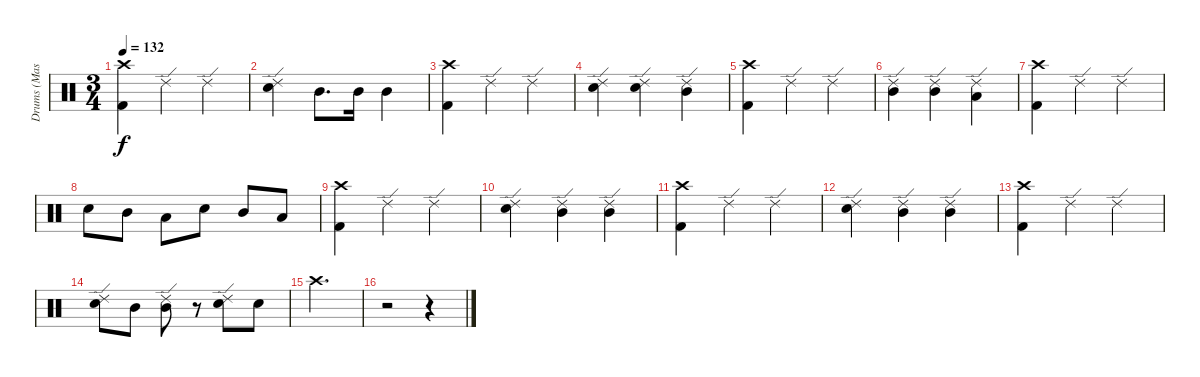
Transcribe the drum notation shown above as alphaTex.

\track ("Drums (Mason)" "Drums (Mas") {instrument percussion}
\staff {score}
\articulation defaults
\ts (3 4)
\section ("" "")
\tempo 132
\clef neutral
\ks c
("Crash high (hit)" "Kick (hit) 2").4{dy f} "Ride (edge) 2".4 "Ride (edge) 2".4 |
("Ride (edge) 2" "Snare (hit) 2").4 "Mid Tom (hit)".8{d} "Mid Tom (hit)".16 "Mid Tom (hit)".4 |
("Crash high (hit)" "Kick (hit) 2").4 "Ride (edge) 2".4 "Ride (edge) 2".4 |
("Ride (edge) 2" "Snare (hit) 2").4 ("Ride (edge) 2" "Snare (hit) 2").4 ("Ride (edge) 2" "Mid Tom (hit)").4 |
("Crash high (hit)" "Kick (hit) 2").4 "Ride (edge) 2".4 "Ride (edge) 2".4 |
("Ride (edge) 2" "Mid Tom (hit)").4 ("Ride (edge) 2" "Mid Tom (hit)").4 ("Ride (edge) 2" "Low Tom (hit)").4 |
("Crash high (hit)" "Kick (hit) 2").4 "Ride (edge) 2".4 "Ride (edge) 2".4 |
"Snare (hit) 2".8 "Mid Tom (hit)".8 "Low Tom (hit)".8 "Snare (hit) 2".8 "Mid Tom (hit)".8 "Low Tom (hit)".8 |
\section ("" "")
("Crash high (hit)" "Kick (hit) 2").4 "Ride (edge) 2".4 "Ride (edge) 2".4 |
("Ride (edge) 2" "Snare (hit) 2").4 ("Ride (edge) 2" "Mid Tom (hit)").4 ("Ride (edge) 2" "Mid Tom (hit)").4 |
("Crash high (hit)" "Kick (hit) 2").4 "Ride (edge) 2".4 "Ride (edge) 2".4 |
("Ride (edge) 2" "Snare (hit) 2").4 ("Ride (edge) 2" "Mid Tom (hit)").4 ("Ride (edge) 2" "Mid Tom (hit)").4 |
("Crash high (hit)" "Kick (hit) 2").4 "Ride (edge) 2".4 "Ride (edge) 2".4 |
("Snare (hit) 2" "Ride (edge) 2").8 "Mid Tom (hit)".8 ("Mid Tom (hit)" "Ride (edge) 2").8 r.8 ("Snare (hit) 2" "Ride (edge) 2").8 "Snare (hit) 2".8 |
"Crash high (hit)".2{d} |
r.2 r.4
